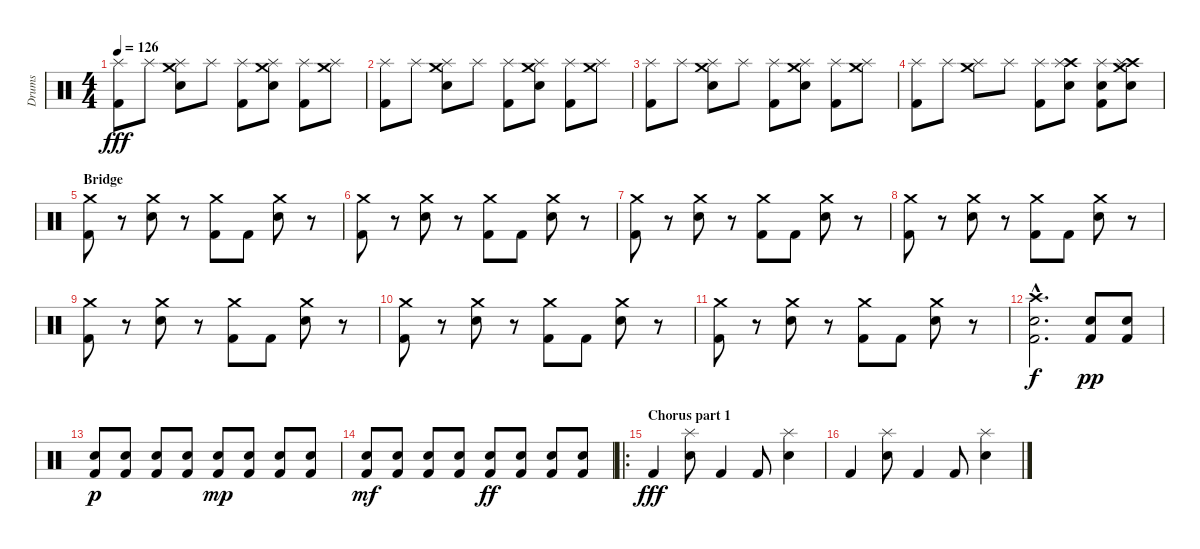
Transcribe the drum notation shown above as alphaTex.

\track ("Drums" "Drums") {instrument percussion}
\staff {score}
\articulation defaults
\ts (4 4)
\tempo 126
\clef neutral
\ks c
("Splash (hit)" "Kick (hit) 2").8{dy fff} "Splash (hit)".8 ("Crash medium (hit)" "Splash (hit)" "Electric Snare (hit)").8 "Splash (hit)".8 ("Splash (hit)" "Kick (hit) 2").8 ("Crash medium (hit)" "Splash (hit)" "Electric Snare (hit)").8 ("Splash (hit)" "Kick (hit) 2").8 ("Crash medium (hit)" "Splash (hit)").8 |
("Splash (hit)" "Kick (hit) 2").8 "Splash (hit)".8 ("Crash medium (hit)" "Splash (hit)" "Electric Snare (hit)").8 "Splash (hit)".8 ("Splash (hit)" "Kick (hit) 2").8 ("Crash medium (hit)" "Splash (hit)" "Electric Snare (hit)").8 ("Splash (hit)" "Kick (hit) 2").8 ("Crash medium (hit)" "Splash (hit)").8 |
("Splash (hit)" "Kick (hit) 2").8 "Splash (hit)".8 ("Crash medium (hit)" "Splash (hit)" "Electric Snare (hit)").8 "Splash (hit)".8 ("Splash (hit)" "Kick (hit) 2").8 ("Crash medium (hit)" "Splash (hit)" "Electric Snare (hit)").8 ("Splash (hit)" "Kick (hit) 2").8 ("Crash medium (hit)" "Splash (hit)").8 |
("Splash (hit)" "Kick (hit) 2").8 "Splash (hit)".8 ("Crash medium (hit)" "Splash (hit)").8 "Splash (hit)".8 ("Splash (hit)" "Kick (hit) 2").8 ("Crash high (hit)" "Splash (hit)" "Electric Snare (hit)").8 ("Splash (hit)" "Electric Snare (hit)" "Kick (hit) 2").8 ("Crash high (hit)" "Crash medium (hit)" "Splash (hit)" "Electric Snare (hit)").8 |
\section ("" "Bridge")
("Crash medium (hit)" "Kick (hit) 2").8 r.8 ("Crash medium (hit)" "Electric Snare (hit)").8 r.8 ("Crash medium (hit)" "Kick (hit) 2").8 "Kick (hit) 2".8 ("Crash medium (hit)" "Electric Snare (hit)").8 r.8 |
("Crash medium (hit)" "Kick (hit) 2").8 r.8 ("Crash medium (hit)" "Electric Snare (hit)").8 r.8 ("Crash medium (hit)" "Kick (hit) 2").8 "Kick (hit) 2".8 ("Crash medium (hit)" "Electric Snare (hit)").8 r.8 |
("Crash medium (hit)" "Kick (hit) 2").8 r.8 ("Crash medium (hit)" "Electric Snare (hit)").8 r.8 ("Crash medium (hit)" "Kick (hit) 2").8 "Kick (hit) 2".8 ("Crash medium (hit)" "Electric Snare (hit)").8 r.8 |
("Crash medium (hit)" "Kick (hit) 2").8 r.8 ("Crash medium (hit)" "Electric Snare (hit)").8 r.8 ("Crash medium (hit)" "Kick (hit) 2").8 "Kick (hit) 2".8 ("Crash medium (hit)" "Electric Snare (hit)").8 r.8 |
("Crash medium (hit)" "Kick (hit) 2").8 r.8 ("Crash medium (hit)" "Electric Snare (hit)").8 r.8 ("Crash medium (hit)" "Kick (hit) 2").8 "Kick (hit) 2".8 ("Crash medium (hit)" "Electric Snare (hit)").8 r.8 |
("Crash medium (hit)" "Kick (hit) 2").8 r.8 ("Crash medium (hit)" "Electric Snare (hit)").8 r.8 ("Crash medium (hit)" "Kick (hit) 2").8 "Kick (hit) 2".8 ("Crash medium (hit)" "Electric Snare (hit)").8 r.8 |
("Crash medium (hit)" "Kick (hit) 2").8 r.8 ("Crash medium (hit)" "Electric Snare (hit)").8 r.8 ("Crash medium (hit)" "Kick (hit) 2").8 "Kick (hit) 2".8 ("Crash medium (hit)" "Electric Snare (hit)").8 r.8 |
("Crash high (hit)"{hac} "Electric Snare (hit)"{hac} "Kick (hit) 2"{hac}).2{d dy f} ("Electric Snare (hit)" "Kick (hit) 2").8{dy pp} ("Electric Snare (hit)" "Kick (hit) 2").8 |
("Electric Snare (hit)" "Kick (hit) 2").8{dy p} ("Electric Snare (hit)" "Kick (hit) 2").8 ("Electric Snare (hit)" "Kick (hit) 2").8 ("Electric Snare (hit)" "Kick (hit) 2").8 ("Electric Snare (hit)" "Kick (hit) 2").8{dy mp} ("Electric Snare (hit)" "Kick (hit) 2").8 ("Electric Snare (hit)" "Kick (hit) 2").8 ("Electric Snare (hit)" "Kick (hit) 2").8 |
("Electric Snare (hit)" "Kick (hit) 2").8{dy mf} ("Electric Snare (hit)" "Kick (hit) 2").8 ("Electric Snare (hit)" "Kick (hit) 2").8 ("Electric Snare (hit)" "Kick (hit) 2").8 ("Electric Snare (hit)" "Kick (hit) 2").8{dy ff} ("Electric Snare (hit)" "Kick (hit) 2").8 ("Electric Snare (hit)" "Kick (hit) 2").8 ("Electric Snare (hit)" "Kick (hit) 2").8 |
\ro
\section ("" "Chorus part 1")
"Kick (hit) 2".4{dy fff} ("Splash (hit)" "Electric Snare (hit)").8 "Kick (hit) 2".4 "Kick (hit) 2".8 ("Splash (hit)" "Electric Snare (hit)").4 |
"Kick (hit) 2".4 ("Splash (hit)" "Electric Snare (hit)").8 "Kick (hit) 2".4 "Kick (hit) 2".8 ("Splash (hit)" "Electric Snare (hit)").4
